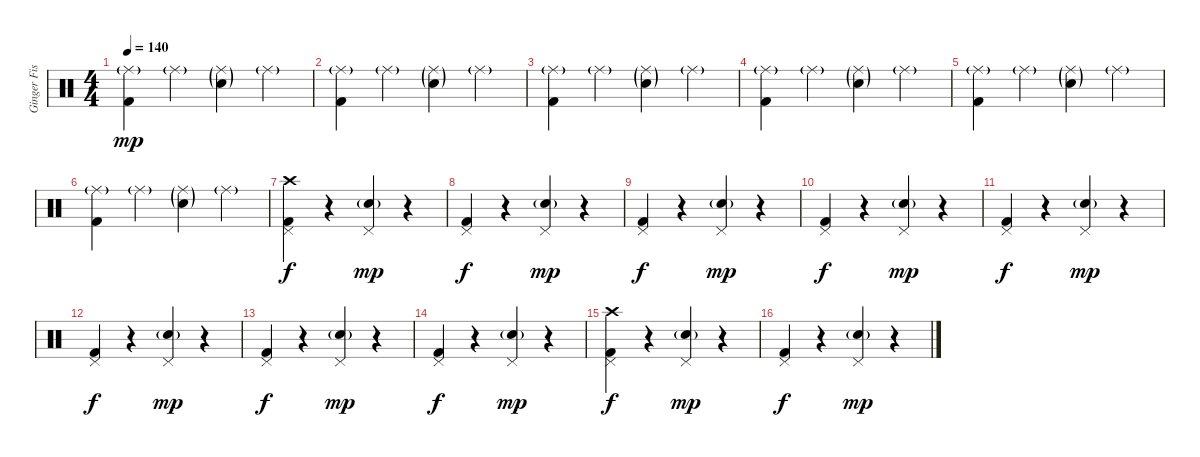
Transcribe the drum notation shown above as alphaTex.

\track ("Ginger Fish" "Ginger Fis") {instrument percussion}
\staff {score}
\articulation defaults
\ts (4 4)
\tempo 140
\clef neutral
\ks c
("Ride (middle)"{g} "Kick (hit) 2").4{dy mp} "Ride (middle)"{g}.4 ("Ride (middle)"{g} "Snare (hit) 2"{g}).4 "Ride (middle)"{g}.4 |
("Ride (middle)"{g} "Kick (hit) 2").4 "Ride (middle)"{g}.4 ("Ride (middle)"{g} "Snare (hit) 2"{g}).4 "Ride (middle)"{g}.4 |
("Ride (middle)"{g} "Kick (hit) 2").4 "Ride (middle)"{g}.4 ("Ride (middle)"{g} "Snare (hit) 2"{g}).4 "Ride (middle)"{g}.4 |
("Ride (middle)"{g} "Kick (hit) 2").4 "Ride (middle)"{g}.4 ("Ride (middle)"{g} "Snare (hit) 2"{g}).4 "Ride (middle)"{g}.4 |
("Ride (middle)"{g} "Kick (hit) 2").4 "Ride (middle)"{g}.4 ("Ride (middle)"{g} "Snare (hit) 2"{g}).4 "Ride (middle)"{g}.4 |
("Ride (middle)"{g} "Kick (hit) 2").4 "Ride (middle)"{g}.4 ("Ride (middle)"{g} "Snare (hit) 2"{g}).4 "Ride (middle)"{g}.4 |
("Pedal Hi-Hat (hit)" "Crash high (hit)" "Kick (hit) 2").4{dy f} r.4 ("Pedal Hi-Hat (hit)" "Electric Snare (hit)"{g}).4{dy mp} r.4 |
("Pedal Hi-Hat (hit)" "Kick (hit) 2").4{dy f} r.4 ("Pedal Hi-Hat (hit)" "Electric Snare (hit)"{g}).4{dy mp} r.4 |
("Pedal Hi-Hat (hit)" "Kick (hit) 2").4{dy f} r.4 ("Pedal Hi-Hat (hit)" "Electric Snare (hit)"{g}).4{dy mp} r.4 |
("Pedal Hi-Hat (hit)" "Kick (hit) 2").4{dy f} r.4 ("Pedal Hi-Hat (hit)" "Electric Snare (hit)"{g}).4{dy mp} r.4 |
("Pedal Hi-Hat (hit)" "Kick (hit) 2").4{dy f} r.4 ("Pedal Hi-Hat (hit)" "Electric Snare (hit)"{g}).4{dy mp} r.4 |
("Pedal Hi-Hat (hit)" "Kick (hit) 2").4{dy f} r.4 ("Pedal Hi-Hat (hit)" "Electric Snare (hit)"{g}).4{dy mp} r.4 |
("Pedal Hi-Hat (hit)" "Kick (hit) 2").4{dy f} r.4 ("Pedal Hi-Hat (hit)" "Electric Snare (hit)"{g}).4{dy mp} r.4 |
("Pedal Hi-Hat (hit)" "Kick (hit) 2").4{dy f} r.4 ("Pedal Hi-Hat (hit)" "Electric Snare (hit)"{g}).4{dy mp} r.4 |
("Pedal Hi-Hat (hit)" "Crash high (hit)" "Kick (hit) 2").4{dy f} r.4 ("Pedal Hi-Hat (hit)" "Electric Snare (hit)"{g}).4{dy mp} r.4 |
("Pedal Hi-Hat (hit)" "Kick (hit) 2").4{dy f} r.4 ("Pedal Hi-Hat (hit)" "Electric Snare (hit)"{g}).4{dy mp} r.4
